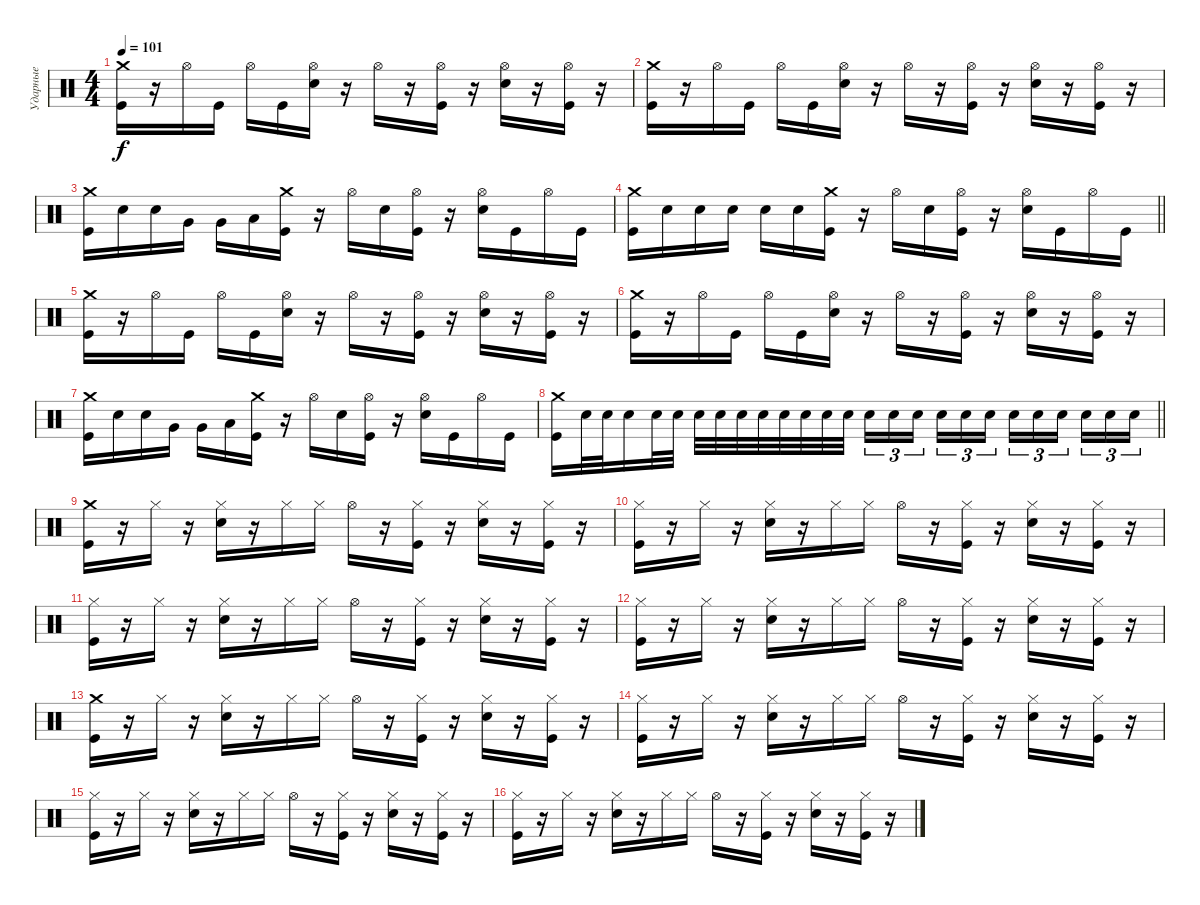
\track ("Ударные" "Ударные") {instrument percussion}
\staff {score}
\articulation defaults
\ts (4 4)
\tempo 101
\clef neutral
\ks c
("Crash medium (hit)" "Kick (hit)").16{dy f volume 16} r.16 "Hi-Hat (open)".16 "Kick (hit)".16 "Hi-Hat (open)".16 "Kick (hit)".16 ("Hi-Hat (open)" "Electric Snare (hit)").16 r.16 "Hi-Hat (open)".16 r.16 ("Hi-Hat (open)" "Kick (hit)").16 r.16 ("Hi-Hat (open)" "Electric Snare (hit)").16 r.16 ("Hi-Hat (open)" "Kick (hit)").16 r.16 |
("Crash medium (hit)" "Kick (hit)").16 r.16 "Hi-Hat (open)".16 "Kick (hit)".16 "Hi-Hat (open)".16 "Kick (hit)".16 ("Hi-Hat (open)" "Electric Snare (hit)").16 r.16 "Hi-Hat (open)".16 r.16 ("Hi-Hat (open)" "Kick (hit)").16 r.16 ("Hi-Hat (open)" "Electric Snare (hit)").16 r.16 ("Hi-Hat (open)" "Kick (hit)").16 r.16 |
("Crash medium (hit)" "Kick (hit)").16 "Electric Snare (hit)".16 "Electric Snare (hit)".16 "Very Low Tom (hit)".16 "Very Low Tom (hit)".16 "Low Tom (hit)".16 ("Crash medium (hit)" "Kick (hit)").16 r.16 "Hi-Hat (open)".16 "Electric Snare (hit)".16 ("Hi-Hat (open)" "Kick (hit)").16 r.16 ("Hi-Hat (open)" "Electric Snare (hit)").16 "Kick (hit)".16 "Hi-Hat (open)".16 "Kick (hit)".16 |
\barLineRight lightlight
("Crash medium (hit)" "Kick (hit)").16 "Electric Snare (hit)".16 "Electric Snare (hit)".16 "Electric Snare (hit)".16 "Electric Snare (hit)".16 "Electric Snare (hit)".16 ("Crash medium (hit)" "Kick (hit)").16 r.16 "Hi-Hat (open)".16 "Electric Snare (hit)".16 ("Hi-Hat (open)" "Kick (hit)").16 r.16 ("Hi-Hat (open)" "Electric Snare (hit)").16 "Kick (hit)".16 "Hi-Hat (open)".16 "Kick (hit)".16 |
("Crash medium (hit)" "Kick (hit)").16 r.16 "Hi-Hat (open)".16 "Kick (hit)".16 "Hi-Hat (open)".16 "Kick (hit)".16 ("Hi-Hat (open)" "Electric Snare (hit)").16 r.16 "Hi-Hat (open)".16 r.16 ("Hi-Hat (open)" "Kick (hit)").16 r.16 ("Hi-Hat (open)" "Electric Snare (hit)").16 r.16 ("Hi-Hat (open)" "Kick (hit)").16 r.16 |
("Crash medium (hit)" "Kick (hit)").16 r.16 "Hi-Hat (open)".16 "Kick (hit)".16 "Hi-Hat (open)".16 "Kick (hit)".16 ("Hi-Hat (open)" "Electric Snare (hit)").16 r.16 "Hi-Hat (open)".16 r.16 ("Hi-Hat (open)" "Kick (hit)").16 r.16 ("Hi-Hat (open)" "Electric Snare (hit)").16 r.16 ("Hi-Hat (open)" "Kick (hit)").16 r.16 |
("Crash medium (hit)" "Kick (hit)").16 "Electric Snare (hit)".16 "Electric Snare (hit)".16 "Very Low Tom (hit)".16 "Very Low Tom (hit)".16 "Low Tom (hit)".16 ("Crash medium (hit)" "Kick (hit)").16 r.16 "Hi-Hat (open)".16 "Electric Snare (hit)".16 ("Hi-Hat (open)" "Kick (hit)").16 r.16 ("Hi-Hat (open)" "Electric Snare (hit)").16 "Kick (hit)".16 "Hi-Hat (open)".16 "Kick (hit)".16 |
\barLineRight lightlight
("Crash medium (hit)" "Kick (hit)").16 "Electric Snare (hit)".32 "Electric Snare (hit)".32 "Electric Snare (hit)".16 "Electric Snare (hit)".32 "Electric Snare (hit)".32 "Electric Snare (hit)".32 "Electric Snare (hit)".32 "Electric Snare (hit)".32 "Electric Snare (hit)".32 "Electric Snare (hit)".32 "Electric Snare (hit)".32 "Electric Snare (hit)".32 "Electric Snare (hit)".32 "Electric Snare (hit)".16{tu (3 2)} "Electric Snare (hit)".16{tu (3 2)} "Electric Snare (hit)".16{tu (3 2) beam splitsecondary} "Electric Snare (hit)".16{tu (3 2)} "Electric Snare (hit)".16{tu (3 2)} "Electric Snare (hit)".16{tu (3 2)} "Electric Snare (hit)".16{tu (3 2)} "Electric Snare (hit)".16{tu (3 2)} "Electric Snare (hit)".16{tu (3 2) beam splitsecondary} "Electric Snare (hit)".16{tu (3 2)} "Electric Snare (hit)".16{tu (3 2)} "Electric Snare (hit)".16{tu (3 2)} |
("Crash medium (hit)" "Kick (hit)").16 r.16 "Hi-Hat (closed)".16 r.16 ("Hi-Hat (closed)" "Electric Snare (hit)").16 r.16 "Hi-Hat (closed)".16 "Hi-Hat (closed)".16 "Hi-Hat (open)".16 r.16 ("Hi-Hat (closed)" "Kick (hit)").16 r.16 ("Hi-Hat (closed)" "Electric Snare (hit)").16 r.16 ("Hi-Hat (closed)" "Kick (hit)").16 r.16 |
("Hi-Hat (closed)" "Kick (hit)").16 r.16 "Hi-Hat (closed)".16 r.16 ("Hi-Hat (closed)" "Electric Snare (hit)").16 r.16 "Hi-Hat (closed)".16 "Hi-Hat (closed)".16 "Hi-Hat (open)".16 r.16 ("Hi-Hat (closed)" "Kick (hit)").16 r.16 ("Hi-Hat (closed)" "Electric Snare (hit)").16 r.16 ("Hi-Hat (closed)" "Kick (hit)").16 r.16 |
("Hi-Hat (closed)" "Kick (hit)").16 r.16 "Hi-Hat (closed)".16 r.16 ("Hi-Hat (closed)" "Electric Snare (hit)").16 r.16 "Hi-Hat (closed)".16 "Hi-Hat (closed)".16 "Hi-Hat (open)".16 r.16 ("Hi-Hat (closed)" "Kick (hit)").16 r.16 ("Hi-Hat (closed)" "Electric Snare (hit)").16 r.16 ("Hi-Hat (closed)" "Kick (hit)").16 r.16 |
("Hi-Hat (closed)" "Kick (hit)").16 r.16 "Hi-Hat (closed)".16 r.16 ("Hi-Hat (closed)" "Electric Snare (hit)").16 r.16 "Hi-Hat (closed)".16 "Hi-Hat (closed)".16 "Hi-Hat (open)".16 r.16 ("Hi-Hat (closed)" "Kick (hit)").16 r.16 ("Hi-Hat (closed)" "Electric Snare (hit)").16 r.16 ("Hi-Hat (closed)" "Kick (hit)").16 r.16 |
("Crash medium (hit)" "Kick (hit)").16 r.16 "Hi-Hat (closed)".16 r.16 ("Hi-Hat (closed)" "Electric Snare (hit)").16 r.16 "Hi-Hat (closed)".16 "Hi-Hat (closed)".16 "Hi-Hat (open)".16 r.16 ("Hi-Hat (closed)" "Kick (hit)").16 r.16 ("Hi-Hat (closed)" "Electric Snare (hit)").16 r.16 ("Hi-Hat (closed)" "Kick (hit)").16 r.16 |
("Hi-Hat (closed)" "Kick (hit)").16 r.16 "Hi-Hat (closed)".16 r.16 ("Hi-Hat (closed)" "Electric Snare (hit)").16 r.16 "Hi-Hat (closed)".16 "Hi-Hat (closed)".16 "Hi-Hat (open)".16 r.16 ("Hi-Hat (closed)" "Kick (hit)").16 r.16 ("Hi-Hat (closed)" "Electric Snare (hit)").16 r.16 ("Hi-Hat (closed)" "Kick (hit)").16 r.16 |
("Hi-Hat (closed)" "Kick (hit)").16 r.16 "Hi-Hat (closed)".16 r.16 ("Hi-Hat (closed)" "Electric Snare (hit)").16 r.16 "Hi-Hat (closed)".16 "Hi-Hat (closed)".16 "Hi-Hat (open)".16 r.16 ("Hi-Hat (closed)" "Kick (hit)").16 r.16 ("Hi-Hat (closed)" "Electric Snare (hit)").16 r.16 ("Hi-Hat (closed)" "Kick (hit)").16 r.16 |
("Hi-Hat (closed)" "Kick (hit)").16 r.16 "Hi-Hat (closed)".16 r.16 ("Hi-Hat (closed)" "Electric Snare (hit)").16 r.16 "Hi-Hat (closed)".16 "Hi-Hat (closed)".16 "Hi-Hat (open)".16 r.16 ("Hi-Hat (closed)" "Kick (hit)").16 r.16 ("Hi-Hat (closed)" "Electric Snare (hit)").16 r.16 ("Hi-Hat (closed)" "Kick (hit)").16 r.16
